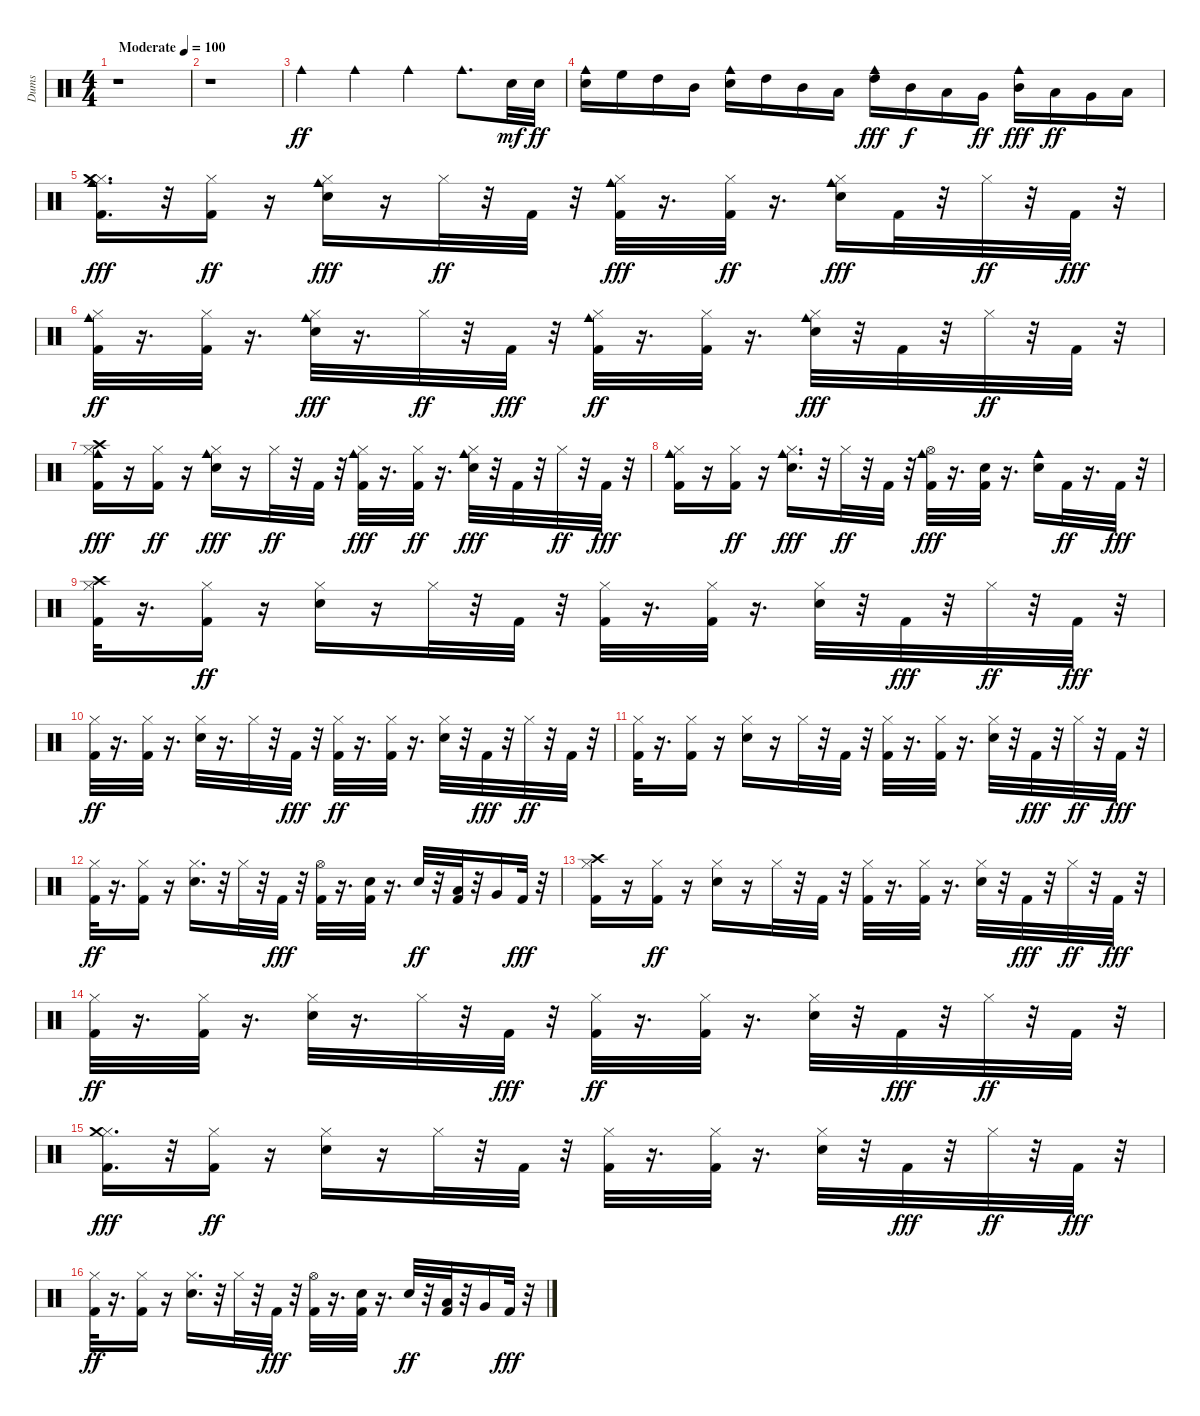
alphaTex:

\track ("Dums" "Dums") {instrument percussion}
\staff {score}
\articulation defaults
\ts (4 4)
\tempo (100 "Moderate")
\clef neutral
\ks c
r.1{dy ff} |
r.1 |
"Cowbell medium (hit)".4 "Cowbell medium (hit)".4 "Cowbell medium (hit)".4 "Cowbell medium (hit)".8{d} "Electric Snare (hit)".32{dy mf} "Electric Snare (hit)".32{dy ff} |
("Electric Snare (hit)" "Cowbell medium (hit)").16 "High Floor Tom (hit)".16 "High Tom (hit)".16 "Mid Tom (hit)".16 ("Electric Snare (hit)" "Cowbell medium (hit)").16 "High Tom (hit)".16 "Mid Tom (hit)".16 "Low Tom (hit)".16 ("High Tom (hit)" "Cowbell medium (hit)").16{dy fff} "Mid Tom (hit)".16{dy f} "Low Tom (hit)".16 "Very Low Tom (hit)".16{dy ff} ("Mid Tom (hit)" "Cowbell medium (hit)").16{dy fff} "Low Tom (hit)".16{dy ff} "Very Low Tom (hit)".16 "Low Floor Tom (hit)".16 |
("Kick (hit) 2" "Hi-Hat (closed)" "Cowbell medium (hit)" "Crash medium (hit)").16{d dy fff} r.32 ("Kick (hit) 2" "Hi-Hat (closed)").16{dy ff} r.16 ("Electric Snare (hit)" "Hi-Hat (closed)" "Cowbell medium (hit)").16{dy fff} r.16 "Hi-Hat (closed)".32{dy ff} r.32 "Kick (hit) 2".32 r.32 ("Kick (hit) 2" "Hi-Hat (closed)" "Cowbell medium (hit)").32{dy fff} r.16{d} ("Kick (hit) 2" "Hi-Hat (closed)").32{dy ff} r.16{d} ("Electric Snare (hit)" "Hi-Hat (closed)" "Cowbell medium (hit)").16{dy fff} "Kick (hit) 2".32 r.32 "Hi-Hat (closed)".32{dy ff} r.32 "Kick (hit) 2".32{dy fff} r.32 |
("Kick (hit) 2" "Hi-Hat (closed)" "Cowbell medium (hit)").32{dy ff} r.16{d} ("Kick (hit) 2" "Hi-Hat (closed)").32 r.16{d} ("Electric Snare (hit)" "Hi-Hat (closed)" "Cowbell medium (hit)").32{dy fff} r.16{d} "Hi-Hat (closed)".32{dy ff} r.32 "Kick (hit) 2".32{dy fff} r.32 ("Kick (hit) 2" "Hi-Hat (closed)" "Cowbell medium (hit)").32{dy ff} r.16{d} ("Kick (hit) 2" "Hi-Hat (closed)").32 r.16{d} ("Electric Snare (hit)" "Hi-Hat (closed)" "Cowbell medium (hit)").32{dy fff} r.32 "Kick (hit) 2".32 r.32 "Hi-Hat (closed)".32{dy ff} r.32 "Kick (hit) 2".32 r.32 |
("Kick (hit) 2" "Hi-Hat (closed)" "Cowbell medium (hit)" "Crash high (hit)").16{dy fff} r.16 ("Kick (hit) 2" "Hi-Hat (closed)").16{dy ff} r.16 ("Electric Snare (hit)" "Hi-Hat (closed)" "Cowbell medium (hit)").16{dy fff} r.16 "Hi-Hat (closed)".32{dy ff} r.32 "Kick (hit) 2".32 r.32 ("Kick (hit) 2" "Hi-Hat (closed)" "Cowbell medium (hit)").32{dy fff} r.16{d} ("Kick (hit) 2" "Hi-Hat (closed)").32{dy ff} r.16{d} ("Electric Snare (hit)" "Hi-Hat (closed)" "Cowbell medium (hit)").32{dy fff} r.32 "Kick (hit) 2".32 r.32 "Hi-Hat (closed)".32{dy ff} r.32 "Kick (hit) 2".32{dy fff} r.32 |
("Kick (hit) 2" "Hi-Hat (closed)" "Cowbell medium (hit)").16 r.16 ("Kick (hit) 2" "Hi-Hat (closed)").16{dy ff} r.16 ("Electric Snare (hit)" "Hi-Hat (closed)" "Cowbell medium (hit)").16{d dy fff} r.32 "Hi-Hat (closed)".32{dy ff} r.32 "Kick (hit) 2".32 r.32 ("Kick (hit) 2" "Hi-Hat (open)" "Cowbell medium (hit)").32{dy fff} r.16{d} ("Kick (hit) 2" "Electric Snare (hit)").32 r.16{d} ("Electric Snare (hit)" "Cowbell medium (hit)").16 "Kick (hit) 2".32{dy ff} r.16{d} "Kick (hit) 2".32{dy fff} r.32 |
("Kick (hit) 2" "Hi-Hat (closed)" "Crash high (hit)").32 r.16{d} ("Kick (hit) 2" "Hi-Hat (closed)").16{dy ff} r.16 ("Electric Snare (hit)" "Hi-Hat (closed)").16 r.16 "Hi-Hat (closed)".32 r.32 "Kick (hit) 2".32 r.32 ("Kick (hit) 2" "Hi-Hat (closed)").32 r.16{d} ("Kick (hit) 2" "Hi-Hat (closed)").32 r.16{d} ("Electric Snare (hit)" "Hi-Hat (closed)").32 r.32 "Kick (hit) 2".32{dy fff} r.32 "Hi-Hat (closed)".32{dy ff} r.32 "Kick (hit) 2".32{dy fff} r.32 |
("Kick (hit) 2" "Hi-Hat (closed)").32{dy ff} r.16{d} ("Kick (hit) 2" "Hi-Hat (closed)").32 r.16{d} ("Electric Snare (hit)" "Hi-Hat (closed)").32 r.16{d} "Hi-Hat (closed)".32 r.32 "Kick (hit) 2".32{dy fff} r.32 ("Kick (hit) 2" "Hi-Hat (closed)").32{dy ff} r.16{d} ("Kick (hit) 2" "Hi-Hat (closed)").32 r.16{d} ("Electric Snare (hit)" "Hi-Hat (closed)").32 r.32 "Kick (hit) 2".32{dy fff} r.32 "Hi-Hat (closed)".32{dy ff} r.32 "Kick (hit) 2".32 r.32 |
("Kick (hit) 2" "Hi-Hat (closed)").32 r.16{d} ("Kick (hit) 2" "Hi-Hat (closed)").16 r.16 ("Electric Snare (hit)" "Hi-Hat (closed)").16 r.16 "Hi-Hat (closed)".32 r.32 "Kick (hit) 2".32 r.32 ("Kick (hit) 2" "Hi-Hat (closed)").32 r.16{d} ("Kick (hit) 2" "Hi-Hat (closed)").32 r.16{d} ("Electric Snare (hit)" "Hi-Hat (closed)").32 r.32 "Kick (hit) 2".32{dy fff} r.32 "Hi-Hat (closed)".32{dy ff} r.32 "Kick (hit) 2".32{dy fff} r.32 |
("Kick (hit) 2" "Hi-Hat (closed)").32{dy ff} r.16{d} ("Kick (hit) 2" "Hi-Hat (closed)").16 r.16 ("Electric Snare (hit)" "Hi-Hat (closed)").16{d} r.32 "Hi-Hat (closed)".32 r.32 "Kick (hit) 2".32{dy fff} r.32 ("Kick (hit) 2" "Hi-Hat (open)").32 r.16{d} ("Kick (hit) 2" "Electric Snare (hit)").32 r.16{d} "Electric Snare (hit)".32{dy ff} r.32 ("Kick (hit) 2" "Low Tom (hit)").32 r.32 "Very Low Tom (hit)".16 "Kick (hit) 2".32{dy fff} r.32 |
("Kick (hit) 2" "Hi-Hat (closed)" "Crash high (hit)").16 r.16 ("Kick (hit) 2" "Hi-Hat (closed)").16{dy ff} r.16 ("Electric Snare (hit)" "Hi-Hat (closed)").16 r.16 "Hi-Hat (closed)".32 r.32 "Kick (hit) 2".32 r.32 ("Kick (hit) 2" "Hi-Hat (closed)").32 r.16{d} ("Kick (hit) 2" "Hi-Hat (closed)").32 r.16{d} ("Electric Snare (hit)" "Hi-Hat (closed)").32 r.32 "Kick (hit) 2".32{dy fff} r.32 "Hi-Hat (closed)".32{dy ff} r.32 "Kick (hit) 2".32{dy fff} r.32 |
("Kick (hit) 2" "Hi-Hat (closed)").32{dy ff} r.16{d} ("Kick (hit) 2" "Hi-Hat (closed)").32 r.16{d} ("Electric Snare (hit)" "Hi-Hat (closed)").32 r.16{d} "Hi-Hat (closed)".32 r.32 "Kick (hit) 2".32{dy fff} r.32 ("Kick (hit) 2" "Hi-Hat (closed)").32{dy ff} r.16{d} ("Kick (hit) 2" "Hi-Hat (closed)").32 r.16{d} ("Electric Snare (hit)" "Hi-Hat (closed)").32 r.32 "Kick (hit) 2".32{dy fff} r.32 "Hi-Hat (closed)".32{dy ff} r.32 "Kick (hit) 2".32 r.32 |
("Kick (hit) 2" "Hi-Hat (closed)" "Crash medium (hit)").16{d dy fff} r.32 ("Kick (hit) 2" "Hi-Hat (closed)").16{dy ff} r.16 ("Electric Snare (hit)" "Hi-Hat (closed)").16 r.16 "Hi-Hat (closed)".32 r.32 "Kick (hit) 2".32 r.32 ("Kick (hit) 2" "Hi-Hat (closed)").32 r.16{d} ("Kick (hit) 2" "Hi-Hat (closed)").32 r.16{d} ("Electric Snare (hit)" "Hi-Hat (closed)").32 r.32 "Kick (hit) 2".32{dy fff} r.32 "Hi-Hat (closed)".32{dy ff} r.32 "Kick (hit) 2".32{dy fff} r.32 |
("Kick (hit) 2" "Hi-Hat (closed)").32{dy ff} r.16{d} ("Kick (hit) 2" "Hi-Hat (closed)").16 r.16 ("Electric Snare (hit)" "Hi-Hat (closed)").16{d} r.32 "Hi-Hat (closed)".32 r.32 "Kick (hit) 2".32{dy fff} r.32 ("Kick (hit) 2" "Hi-Hat (open)").32 r.16{d} ("Kick (hit) 2" "Electric Snare (hit)").32 r.16{d} "Electric Snare (hit)".32{dy ff} r.32 ("Kick (hit) 2" "Low Tom (hit)").32 r.32 "Very Low Tom (hit)".16 "Kick (hit) 2".32{dy fff} r.32
